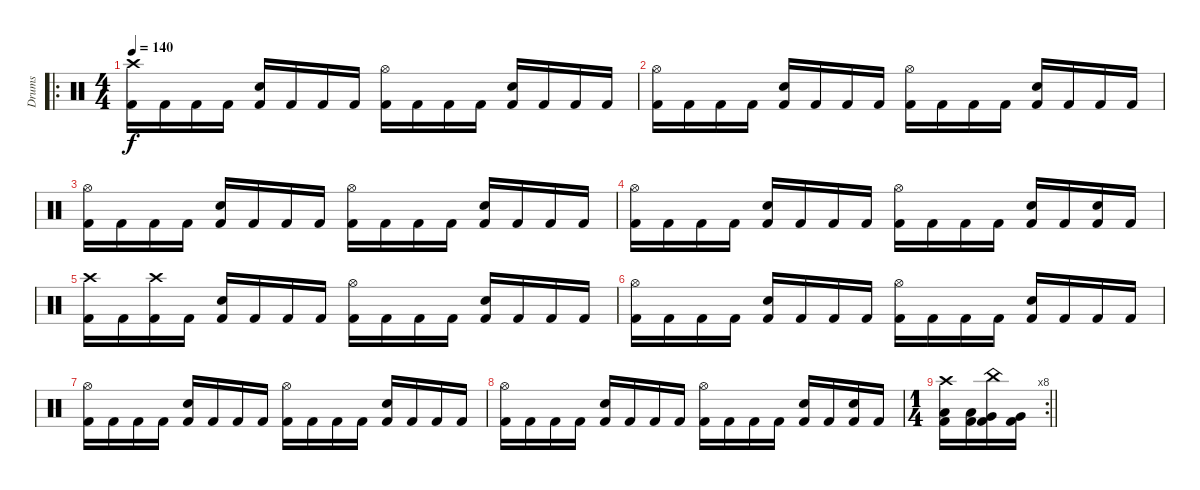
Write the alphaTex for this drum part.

\track ("Drums" "Drums") {instrument percussion}
\staff {score}
\articulation defaults
\ro
\ts (4 4)
\tempo 140
\clef neutral
\ks c
("Crash high (hit)" "Kick (hit) 2").16{dy f} "Kick (hit) 2".16 "Kick (hit) 2".16 "Kick (hit) 2".16 ("Snare (hit) 2" "Kick (hit) 2").16 "Kick (hit) 2".16 "Kick (hit) 2".16 "Kick (hit) 2".16 ("Hi-Hat (open)" "Kick (hit) 2").16 "Kick (hit) 2".16 "Kick (hit) 2".16 "Kick (hit) 2".16 ("Snare (hit) 2" "Kick (hit) 2").16 "Kick (hit) 2".16 "Kick (hit) 2".16 "Kick (hit) 2".16 |
("Hi-Hat (open)" "Kick (hit) 2").16 "Kick (hit) 2".16 "Kick (hit) 2".16 "Kick (hit) 2".16 ("Snare (hit) 2" "Kick (hit) 2").16 "Kick (hit) 2".16 "Kick (hit) 2".16 "Kick (hit) 2".16 ("Hi-Hat (open)" "Kick (hit) 2").16 "Kick (hit) 2".16 "Kick (hit) 2".16 "Kick (hit) 2".16 ("Snare (hit) 2" "Kick (hit) 2").16 "Kick (hit) 2".16 "Kick (hit) 2".16 "Kick (hit) 2".16 |
("Hi-Hat (open)" "Kick (hit) 2").16 "Kick (hit) 2".16 "Kick (hit) 2".16 "Kick (hit) 2".16 ("Snare (hit) 2" "Kick (hit) 2").16 "Kick (hit) 2".16 "Kick (hit) 2".16 "Kick (hit) 2".16 ("Hi-Hat (open)" "Kick (hit) 2").16 "Kick (hit) 2".16 "Kick (hit) 2".16 "Kick (hit) 2".16 ("Snare (hit) 2" "Kick (hit) 2").16 "Kick (hit) 2".16 "Kick (hit) 2".16 "Kick (hit) 2".16 |
("Hi-Hat (open)" "Kick (hit) 2").16 "Kick (hit) 2".16 "Kick (hit) 2".16 "Kick (hit) 2".16 ("Snare (hit) 2" "Kick (hit) 2").16 "Kick (hit) 2".16 "Kick (hit) 2".16 "Kick (hit) 2".16 ("Hi-Hat (open)" "Kick (hit) 2").16 "Kick (hit) 2".16 "Kick (hit) 2".16 "Kick (hit) 2".16 ("Snare (hit) 2" "Kick (hit) 2").16 "Kick (hit) 2".16 ("Snare (hit) 2" "Kick (hit) 2").16 "Kick (hit) 2".16 |
("Crash high (hit)" "Kick (hit) 2").16 "Kick (hit) 2".16 ("Crash high (hit)" "Kick (hit) 2").16 "Kick (hit) 2".16 ("Snare (hit) 2" "Kick (hit) 2").16 "Kick (hit) 2".16 "Kick (hit) 2".16 "Kick (hit) 2".16 ("Hi-Hat (open)" "Kick (hit) 2").16 "Kick (hit) 2".16 "Kick (hit) 2".16 "Kick (hit) 2".16 ("Snare (hit) 2" "Kick (hit) 2").16 "Kick (hit) 2".16 "Kick (hit) 2".16 "Kick (hit) 2".16 |
("Hi-Hat (open)" "Kick (hit) 2").16 "Kick (hit) 2".16 "Kick (hit) 2".16 "Kick (hit) 2".16 ("Snare (hit) 2" "Kick (hit) 2").16 "Kick (hit) 2".16 "Kick (hit) 2".16 "Kick (hit) 2".16 ("Hi-Hat (open)" "Kick (hit) 2").16 "Kick (hit) 2".16 "Kick (hit) 2".16 "Kick (hit) 2".16 ("Snare (hit) 2" "Kick (hit) 2").16 "Kick (hit) 2".16 "Kick (hit) 2".16 "Kick (hit) 2".16 |
("Hi-Hat (open)" "Kick (hit) 2").16 "Kick (hit) 2".16 "Kick (hit) 2".16 "Kick (hit) 2".16 ("Snare (hit) 2" "Kick (hit) 2").16 "Kick (hit) 2".16 "Kick (hit) 2".16 "Kick (hit) 2".16 ("Hi-Hat (open)" "Kick (hit) 2").16 "Kick (hit) 2".16 "Kick (hit) 2".16 "Kick (hit) 2".16 ("Snare (hit) 2" "Kick (hit) 2").16 "Kick (hit) 2".16 "Kick (hit) 2".16 "Kick (hit) 2".16 |
("Hi-Hat (open)" "Kick (hit) 2").16 "Kick (hit) 2".16 "Kick (hit) 2".16 "Kick (hit) 2".16 ("Snare (hit) 2" "Kick (hit) 2").16 "Kick (hit) 2".16 "Kick (hit) 2".16 "Kick (hit) 2".16 ("Hi-Hat (open)" "Kick (hit) 2").16 "Kick (hit) 2".16 "Kick (hit) 2".16 "Kick (hit) 2".16 ("Snare (hit) 2" "Kick (hit) 2").16 "Kick (hit) 2".16 ("Snare (hit) 2" "Kick (hit) 2").16 "Kick (hit) 2".16 |
\rc 8
\ts (1 4)
\barLineRight lightlight
("Crash high (hit)" "Low Tom (hit)" "Kick (hit) 2").16 ("Low Tom (hit)" "Kick (hit) 2").16 ("China (hit)" "Very Low Tom (hit)" "Kick (hit) 2").16 ("Very Low Tom (hit)" "Kick (hit) 2").16
